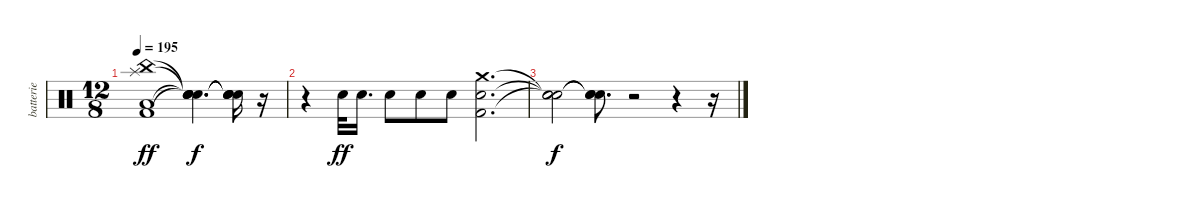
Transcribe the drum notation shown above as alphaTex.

\track ("batterie" "batterie") {instrument percussion}
\staff {score}
\articulation defaults
\ts (12 8)
\tempo 195
\clef neutral
\ks c
("Kick (hit) 2" "Low Floor Tom (hit)" "China (hit)" "Splash (hit)").1{dy ff} ("Snare (hit)"{t} "Snare (hit)"{t} "Snare (hit)"{t} "Snare (hit)"{t}).4{d dy f} ("Snare (hit)"{t} "Snare (hit)"{t} "Snare (hit)"{t} "Snare (hit)"{t}).16 r.16 |
r.4 "Electric Snare (hit)".32{dy ff} "Electric Snare (hit)".16{d} "Electric Snare (hit)".8 "Electric Snare (hit)".8 "Electric Snare (hit)".8 ("Kick (hit) 2" "Electric Snare (hit)" "Crash medium (hit)").2{d} |
("Snare (hit)"{t} "Snare (hit)"{t} "Snare (hit)"{t}).2{dy f} ("Snare (hit)"{t} "Snare (hit)"{t} "Snare (hit)"{t}).8{d} r.2 r.4 r.16
